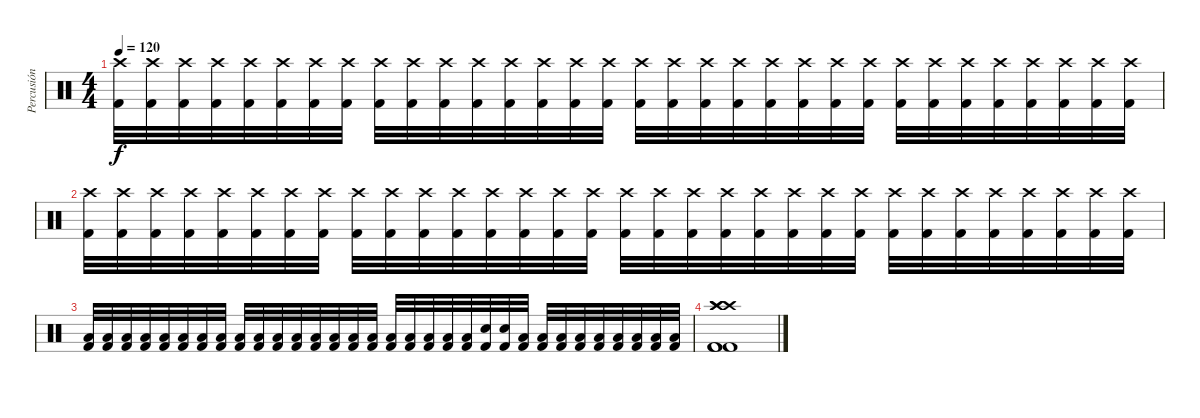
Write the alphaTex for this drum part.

\track ("Percusión" "Percusión") {instrument percussion}
\staff {score}
\articulation defaults
\ts (4 4)
\tempo 120
\clef neutral
\ks c
("Crash high (hit)" "Kick (hit) 2").32{dy f} ("Crash high (hit)" "Kick (hit) 2").32 ("Crash high (hit)" "Kick (hit) 2").32 ("Crash high (hit)" "Kick (hit) 2").32 ("Crash high (hit)" "Kick (hit) 2").32 ("Crash high (hit)" "Kick (hit) 2").32 ("Crash high (hit)" "Kick (hit) 2").32 ("Crash high (hit)" "Kick (hit) 2").32 ("Crash high (hit)" "Kick (hit) 2").32 ("Crash high (hit)" "Kick (hit) 2").32 ("Crash high (hit)" "Kick (hit) 2").32 ("Crash high (hit)" "Kick (hit) 2").32 ("Crash high (hit)" "Kick (hit) 2").32 ("Crash high (hit)" "Kick (hit) 2").32 ("Crash high (hit)" "Kick (hit) 2").32 ("Crash high (hit)" "Kick (hit) 2").32 ("Crash high (hit)" "Kick (hit) 2").32 ("Crash high (hit)" "Kick (hit) 2").32 ("Crash high (hit)" "Kick (hit) 2").32 ("Crash high (hit)" "Kick (hit) 2").32 ("Crash high (hit)" "Kick (hit) 2").32 ("Crash high (hit)" "Kick (hit) 2").32 ("Crash high (hit)" "Kick (hit) 2").32 ("Crash high (hit)" "Kick (hit) 2").32 ("Crash high (hit)" "Kick (hit) 2").32 ("Crash high (hit)" "Kick (hit) 2").32 ("Crash high (hit)" "Kick (hit) 2").32 ("Crash high (hit)" "Kick (hit) 2").32 ("Crash high (hit)" "Kick (hit) 2").32 ("Crash high (hit)" "Kick (hit) 2").32 ("Crash high (hit)" "Kick (hit) 2").32 ("Crash high (hit)" "Kick (hit) 2").32 |
("Crash high (hit)" "Kick (hit) 2").32 ("Crash high (hit)" "Kick (hit) 2").32 ("Crash high (hit)" "Kick (hit) 2").32 ("Crash high (hit)" "Kick (hit) 2").32 ("Crash high (hit)" "Kick (hit) 2").32 ("Crash high (hit)" "Kick (hit) 2").32 ("Crash high (hit)" "Kick (hit) 2").32 ("Crash high (hit)" "Kick (hit) 2").32 ("Crash high (hit)" "Kick (hit) 2").32 ("Crash high (hit)" "Kick (hit) 2").32 ("Crash high (hit)" "Kick (hit) 2").32 ("Crash high (hit)" "Kick (hit) 2").32 ("Crash high (hit)" "Kick (hit) 2").32 ("Crash high (hit)" "Kick (hit) 2").32 ("Crash high (hit)" "Kick (hit) 2").32 ("Crash high (hit)" "Kick (hit) 2").32 ("Crash high (hit)" "Kick (hit) 2").32 ("Crash high (hit)" "Kick (hit) 2").32 ("Crash high (hit)" "Kick (hit) 2").32 ("Crash high (hit)" "Kick (hit) 2").32 ("Crash high (hit)" "Kick (hit) 2").32 ("Crash high (hit)" "Kick (hit) 2").32 ("Crash high (hit)" "Kick (hit) 2").32 ("Crash high (hit)" "Kick (hit) 2").32 ("Crash high (hit)" "Kick (hit) 2").32 ("Crash high (hit)" "Kick (hit) 2").32 ("Crash high (hit)" "Kick (hit) 2").32 ("Crash high (hit)" "Kick (hit) 2").32 ("Crash high (hit)" "Kick (hit) 2").32 ("Crash high (hit)" "Kick (hit) 2").32 ("Crash high (hit)" "Kick (hit) 2").32 ("Crash high (hit)" "Kick (hit) 2").32 |
("Low Floor Tom (hit)" "Kick (hit) 2").32 ("Low Floor Tom (hit)" "Kick (hit) 2").32 ("Low Floor Tom (hit)" "Kick (hit) 2").32 ("Low Floor Tom (hit)" "Kick (hit) 2").32 ("Low Floor Tom (hit)" "Kick (hit) 2").32 ("Low Floor Tom (hit)" "Kick (hit) 2").32 ("Low Floor Tom (hit)" "Kick (hit) 2").32 ("Low Floor Tom (hit)" "Kick (hit) 2").32 ("Low Floor Tom (hit)" "Kick (hit) 2").32 ("Low Floor Tom (hit)" "Kick (hit) 2").32 ("Low Floor Tom (hit)" "Kick (hit) 2").32 ("Low Floor Tom (hit)" "Kick (hit) 2").32 ("Low Floor Tom (hit)" "Kick (hit) 2").32 ("Low Floor Tom (hit)" "Kick (hit) 2").32 ("Low Floor Tom (hit)" "Kick (hit) 2").32 ("Low Floor Tom (hit)" "Kick (hit) 2").32 ("Low Floor Tom (hit)" "Kick (hit) 2").32 ("Low Floor Tom (hit)" "Kick (hit) 2").32 ("Low Floor Tom (hit)" "Kick (hit) 2").32 ("Low Floor Tom (hit)" "Kick (hit) 2").32 ("Low Floor Tom (hit)" "Kick (hit) 2").32 ("Snare (hit)" "Kick (hit) 2").32 ("Snare (hit)" "Kick (hit) 2").32 ("Low Floor Tom (hit)" "Kick (hit) 2").32 ("Low Floor Tom (hit)" "Kick (hit) 2").32 ("Low Floor Tom (hit)" "Kick (hit) 2").32 ("Low Floor Tom (hit)" "Kick (hit) 2").32 ("Low Floor Tom (hit)" "Kick (hit) 2").32 ("Low Floor Tom (hit)" "Kick (hit) 2").32 ("Low Floor Tom (hit)" "Kick (hit) 2").32 ("Low Floor Tom (hit)" "Kick (hit) 2").32 ("Low Floor Tom (hit)" "Kick (hit) 2").32 |
("Crash high (hit)" "Crash high (hit)" "Crash high (hit)" "Kick (hit) 2" "Kick (hit) 2" "Kick (hit) 2").1
